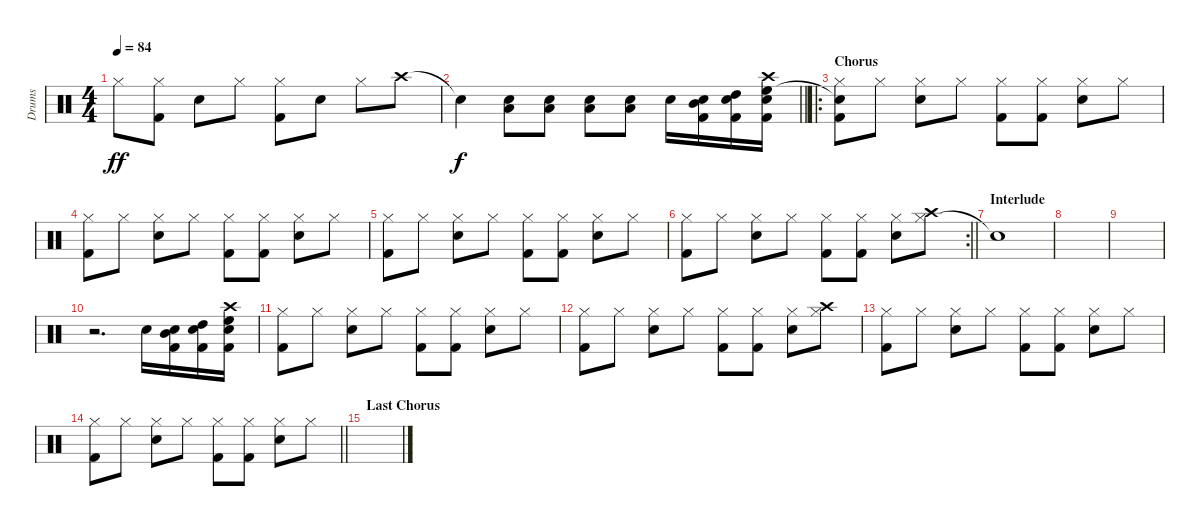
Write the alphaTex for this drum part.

\track ("Drums" "Drums") {instrument percussion}
\staff {score}
\articulation defaults
\ts (4 4)
\tempo 84
\clef neutral
\ks c "Hi-Hat (closed)".8{dy ff}
("Hi-Hat (closed)" "Kick (hit) 2").8 "Snare (hit) 2".8 "Hi-Hat (closed)".8 ("Hi-Hat (closed)" "Kick (hit) 2").8 "Snare (hit) 2".8 "Hi-Hat (closed)".8 "Crash high (hit)".8 |
\barLineRight lightlight "Snare (hit)"{t}.4{dy f}
("Low Tom (hit)" "Snare (hit) 2").8 ("Low Tom (hit)" "Snare (hit) 2").8 ("Low Tom (hit)" "Snare (hit) 2").8 ("Low Tom (hit)" "Snare (hit) 2").8 "Snare (hit) 2".16 ("Snare (hit) 2" "Kick (hit) 2" "Mid Tom (hit)").16 ("Snare (hit) 2" "Kick (hit) 2" "High Tom (hit)").16 ("Snare (hit) 2" "Kick (hit) 2" "High Floor Tom (hit)" "Crash high (hit)").16 |
\ro
\section ("" "Chorus")
("Hi-Hat (closed)" "Kick (hit) 2" "Snare (hit)"{t}).8 "Hi-Hat (closed)".8 ("Hi-Hat (closed)" "Snare (hit) 2").8 "Hi-Hat (closed)".8 ("Hi-Hat (closed)" "Kick (hit) 2").8 ("Hi-Hat (closed)" "Kick (hit) 2").8 ("Hi-Hat (closed)" "Snare (hit) 2").8 "Hi-Hat (closed)".8 |
("Hi-Hat (closed)" "Kick (hit) 2").8 "Hi-Hat (closed)".8 ("Hi-Hat (closed)" "Snare (hit) 2").8 "Hi-Hat (closed)".8 ("Hi-Hat (closed)" "Kick (hit) 2").8 ("Hi-Hat (closed)" "Kick (hit) 2").8 ("Hi-Hat (closed)" "Snare (hit) 2").8 "Hi-Hat (closed)".8 |
("Hi-Hat (closed)" "Kick (hit) 2").8 "Hi-Hat (closed)".8 ("Hi-Hat (closed)" "Snare (hit) 2").8 "Hi-Hat (closed)".8 ("Hi-Hat (closed)" "Kick (hit) 2").8 ("Hi-Hat (closed)" "Kick (hit) 2").8 ("Hi-Hat (closed)" "Snare (hit) 2").8 "Hi-Hat (closed)".8 |
\rc 2
\barLineRight lightlight
("Hi-Hat (closed)" "Kick (hit) 2").8 "Hi-Hat (closed)".8 ("Hi-Hat (closed)" "Snare (hit) 2").8 "Hi-Hat (closed)".8 ("Hi-Hat (closed)" "Kick (hit) 2").8 ("Hi-Hat (closed)" "Kick (hit) 2").8 ("Hi-Hat (closed)" "Snare (hit) 2").8 ("Hi-Hat (closed)" "Crash high (hit)").8 |
\section ("" "Interlude")
"Snare (hit)"{t}.1 |
|
|
r.2{d} "Snare (hit) 2".16 ("Snare (hit) 2" "Kick (hit) 2" "Mid Tom (hit)").16 ("Snare (hit) 2" "Kick (hit) 2" "High Tom (hit)").16 ("Snare (hit) 2" "Kick (hit) 2" "High Floor Tom (hit)" "Crash high (hit)").16 |
("Hi-Hat (closed)" "Kick (hit) 2").8 "Hi-Hat (closed)".8 ("Hi-Hat (closed)" "Snare (hit) 2").8 "Hi-Hat (closed)".8 ("Hi-Hat (closed)" "Kick (hit) 2").8 ("Hi-Hat (closed)" "Kick (hit) 2").8 ("Hi-Hat (closed)" "Snare (hit) 2").8 "Hi-Hat (closed)".8 |
("Hi-Hat (closed)" "Kick (hit) 2").8 "Hi-Hat (closed)".8 ("Hi-Hat (closed)" "Snare (hit) 2").8 "Hi-Hat (closed)".8 ("Hi-Hat (closed)" "Kick (hit) 2").8 ("Hi-Hat (closed)" "Kick (hit) 2").8 ("Hi-Hat (closed)" "Snare (hit) 2").8 ("Hi-Hat (closed)" "Crash high (hit)").8 |
("Hi-Hat (closed)" "Kick (hit) 2").8 "Hi-Hat (closed)".8 ("Hi-Hat (closed)" "Snare (hit) 2").8 "Hi-Hat (closed)".8 ("Hi-Hat (closed)" "Kick (hit) 2").8 ("Hi-Hat (closed)" "Kick (hit) 2").8 ("Hi-Hat (closed)" "Snare (hit) 2").8 "Hi-Hat (closed)".8 |
\barLineRight lightlight
("Hi-Hat (closed)" "Kick (hit) 2").8 "Hi-Hat (closed)".8 ("Hi-Hat (closed)" "Snare (hit) 2").8 "Hi-Hat (closed)".8 ("Hi-Hat (closed)" "Kick (hit) 2").8 ("Hi-Hat (closed)" "Kick (hit) 2").8 ("Hi-Hat (closed)" "Snare (hit) 2").8 "Hi-Hat (closed)".8 |
\section ("" "Last Chorus")
